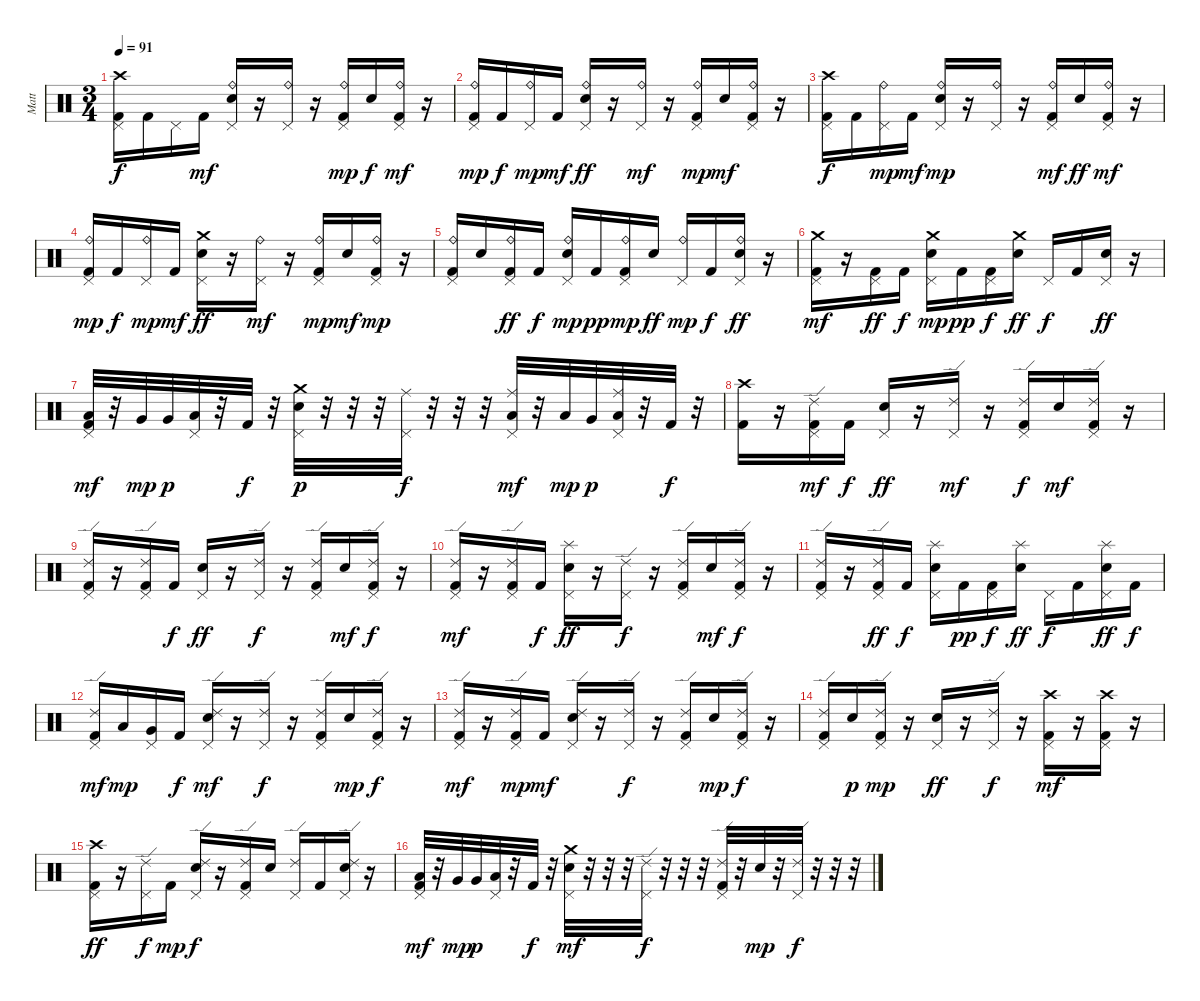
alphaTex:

\track ("Matt" "Matt") {instrument percussion}
\staff {score}
\articulation defaults
\ts (3 4)
\tempo 91
\clef neutral
\ks c
("Crash high (hit)" "Pedal Hi-Hat (hit)" "Kick (hit) 2").16{dy f} "Kick (hit) 2".16 "Pedal Hi-Hat (hit)".16 "Kick (hit) 2".16{dy mf} ("Ride (bell)" "Pedal Hi-Hat (hit)" "Electric Snare (hit)").16 r.16 ("Ride (bell)" "Pedal Hi-Hat (hit)").16 r.16 ("Ride (bell)" "Pedal Hi-Hat (hit)" "Kick (hit) 2").16{dy mp} "Electric Snare (hit)".16{dy f} ("Ride (bell)" "Pedal Hi-Hat (hit)" "Kick (hit) 2").16{dy mf} r.16 |
("Ride (bell)" "Pedal Hi-Hat (hit)" "Kick (hit) 2").16{dy mp} "Kick (hit) 2".16{dy f} ("Ride (bell)" "Pedal Hi-Hat (hit)").16{dy mp} "Kick (hit) 2".16{dy mf} ("Ride (bell)" "Pedal Hi-Hat (hit)" "Electric Snare (hit)").16{dy ff} r.16 ("Ride (bell)" "Pedal Hi-Hat (hit)").16{dy mf} r.16 ("Ride (bell)" "Pedal Hi-Hat (hit)" "Kick (hit) 2").16{dy mp} "Electric Snare (hit)".16{dy mf} ("Ride (bell)" "Pedal Hi-Hat (hit)" "Kick (hit) 2").16 r.16 |
("Crash high (hit)" "Pedal Hi-Hat (hit)" "Kick (hit) 2").16{dy f} "Kick (hit) 2".16 ("Ride (bell)" "Pedal Hi-Hat (hit)").16{dy mp} "Kick (hit) 2".16{dy mf} ("Ride (bell)" "Pedal Hi-Hat (hit)" "Electric Snare (hit)").16{dy mp} r.16 ("Ride (bell)" "Pedal Hi-Hat (hit)").16 r.16 ("Ride (bell)" "Pedal Hi-Hat (hit)" "Kick (hit) 2").16{dy mf} "Electric Snare (hit)".16{dy ff} ("Ride (bell)" "Pedal Hi-Hat (hit)" "Kick (hit) 2").16{dy mf} r.16 |
("Ride (bell)" "Pedal Hi-Hat (hit)" "Kick (hit) 2").16{dy mp} "Kick (hit) 2".16{dy f} ("Ride (bell)" "Pedal Hi-Hat (hit)").16{dy mp} "Kick (hit) 2".16{dy mf} ("Crash medium (hit)" "Pedal Hi-Hat (hit)" "Electric Snare (hit)").16{dy ff} r.16 ("Ride (bell)" "Pedal Hi-Hat (hit)").16{dy mf} r.16 ("Ride (bell)" "Pedal Hi-Hat (hit)" "Kick (hit) 2").16{dy mp} "Electric Snare (hit)".16{dy mf} ("Ride (bell)" "Pedal Hi-Hat (hit)" "Kick (hit) 2").16{dy mp} r.16 |
("Ride (bell)" "Pedal Hi-Hat (hit)" "Kick (hit) 2").16 "Electric Snare (hit)".16 ("Ride (bell)" "Pedal Hi-Hat (hit)" "Kick (hit) 2").16{dy ff} "Kick (hit) 2".16{dy f} ("Ride (bell)" "Pedal Hi-Hat (hit)" "Electric Snare (hit)").16{dy mp} "Kick (hit) 2".16{dy pp} ("Ride (bell)" "Pedal Hi-Hat (hit)" "Kick (hit) 2").16{dy mp} "Electric Snare (hit)".16{dy ff} ("Ride (bell)" "Pedal Hi-Hat (hit)").16{dy mp} "Kick (hit) 2".16{dy f} ("Ride (bell)" "Pedal Hi-Hat (hit)" "Electric Snare (hit)").16{dy ff} r.16 |
("Crash medium (hit)" "Pedal Hi-Hat (hit)" "Kick (hit) 2").16{dy mf} r.16 ("Pedal Hi-Hat (hit)" "Kick (hit) 2").16{dy ff} "Kick (hit) 2".16{dy f} ("Crash medium (hit)" "Pedal Hi-Hat (hit)" "Electric Snare (hit)").16{dy mp} "Kick (hit) 2".16{dy pp} ("Pedal Hi-Hat (hit)" "Kick (hit) 2").16{dy f} ("Crash medium (hit)" "Electric Snare (hit)").16{dy ff} "Pedal Hi-Hat (hit)".16{dy f} "Kick (hit) 2".16 ("Pedal Hi-Hat (hit)" "Electric Snare (hit)").16{dy ff} r.16 |
("Pedal Hi-Hat (hit)" "Low Tom (hit)" "Kick (hit) 2").32{dy mf} r.32 "Very Low Tom (hit)".32{dy mp} "Very Low Tom (hit)".32{dy p} ("Pedal Hi-Hat (hit)" "Low Floor Tom (hit)").32 r.32 "Kick (hit) 2".32{dy f} r.32 ("Crash medium (hit)" "Pedal Hi-Hat (hit)" "Electric Snare (hit)").32{dy p} r.32 r.32 r.32 ("Pedal Hi-Hat (hit)" "Ride (middle)").32{dy f} r.32 r.32 r.32 ("Pedal Hi-Hat (hit)" "Ride (middle)" "Low Tom (hit)").32{dy mf} r.32 "Low Tom (hit)".32{dy mp} "Very Low Tom (hit)".32{dy p} ("Pedal Hi-Hat (hit)" "Ride (middle)" "Low Floor Tom (hit)").32 r.32 "Kick (hit) 2".32{dy f} r.32 |
("Crash high (hit)" "Kick (hit) 2").16 r.16 ("Pedal Hi-Hat (hit)" "Ride (edge) 2" "Kick (hit) 2").16{dy mf} "Kick (hit) 2".16{dy f} ("Pedal Hi-Hat (hit)" "Electric Snare (hit)").16{dy ff} r.16 ("Pedal Hi-Hat (hit)" "Ride (edge) 2").16{dy mf} r.16 ("Pedal Hi-Hat (hit)" "Ride (edge) 2" "Kick (hit) 2").16{dy f} "Electric Snare (hit)".16{dy mf} ("Pedal Hi-Hat (hit)" "Ride (edge) 2" "Kick (hit) 2").16 r.16 |
("Pedal Hi-Hat (hit)" "Ride (edge) 2" "Kick (hit) 2").16 r.16 ("Pedal Hi-Hat (hit)" "Ride (edge) 2" "Kick (hit) 2").16 "Kick (hit) 2".16{dy f} ("Pedal Hi-Hat (hit)" "Electric Snare (hit)").16{dy ff} r.16 ("Pedal Hi-Hat (hit)" "Ride (edge) 2").16{dy f} r.16 ("Pedal Hi-Hat (hit)" "Ride (edge) 2" "Kick (hit) 2").16 "Electric Snare (hit)".16{dy mf} ("Pedal Hi-Hat (hit)" "Ride (edge) 2" "Kick (hit) 2").16{dy f} r.16 |
("Pedal Hi-Hat (hit)" "Ride (edge) 2" "Kick (hit) 2").16{dy mf} r.16 ("Pedal Hi-Hat (hit)" "Ride (edge) 2" "Kick (hit) 2").16 "Kick (hit) 2".16{dy f} ("Splash (hit)" "Pedal Hi-Hat (hit)" "Electric Snare (hit)").16{dy ff} r.16 ("Pedal Hi-Hat (hit)" "Ride (edge) 2").16{dy f} r.16 ("Pedal Hi-Hat (hit)" "Ride (edge) 2" "Kick (hit) 2").16 "Electric Snare (hit)".16{dy mf} ("Pedal Hi-Hat (hit)" "Ride (edge) 2" "Kick (hit) 2").16{dy f} r.16 |
("Pedal Hi-Hat (hit)" "Ride (edge) 2" "Kick (hit) 2").16 r.16 ("Pedal Hi-Hat (hit)" "Ride (edge) 2" "Kick (hit) 2").16{dy ff} "Kick (hit) 2".16{dy f} ("Splash (hit)" "Pedal Hi-Hat (hit)" "Electric Snare (hit)").16 "Kick (hit) 2".16{dy pp} ("Pedal Hi-Hat (hit)" "Kick (hit) 2").16{dy f} ("Splash (hit)" "Electric Snare (hit)").16{dy ff} "Pedal Hi-Hat (hit)".16{dy f} "Kick (hit) 2".16 ("Splash (hit)" "Pedal Hi-Hat (hit)" "Electric Snare (hit)").16{dy ff} "Kick (hit) 2".16{dy f} |
("Pedal Hi-Hat (hit)" "Ride (edge) 2" "Kick (hit) 2").16{dy mf} "Low Tom (hit)".16{dy mp} ("Pedal Hi-Hat (hit)" "Very Low Tom (hit)").16 "Kick (hit) 2".16{dy f} ("Pedal Hi-Hat (hit)" "Ride (edge) 2" "Electric Snare (hit)").16{dy mf} r.16 ("Pedal Hi-Hat (hit)" "Ride (edge) 2").16{dy f} r.16 ("Pedal Hi-Hat (hit)" "Ride (edge) 2" "Kick (hit) 2").16 "Electric Snare (hit)".16{dy mp} ("Pedal Hi-Hat (hit)" "Ride (edge) 2" "Kick (hit) 2").16{dy f} r.16 |
("Pedal Hi-Hat (hit)" "Ride (edge) 2" "Kick (hit) 2").16{dy mf} r.16 ("Pedal Hi-Hat (hit)" "Ride (edge) 2" "Kick (hit) 2").16{dy mp} "Kick (hit) 2".16{dy mf} ("Pedal Hi-Hat (hit)" "Ride (edge) 2" "Electric Snare (hit)").16 r.16 ("Pedal Hi-Hat (hit)" "Ride (edge) 2").16{dy f} r.16 ("Pedal Hi-Hat (hit)" "Ride (edge) 2" "Kick (hit) 2").16 "Electric Snare (hit)".16{dy mp} ("Pedal Hi-Hat (hit)" "Ride (edge) 2" "Kick (hit) 2").16{dy f} r.16 |
("Pedal Hi-Hat (hit)" "Ride (edge) 2" "Kick (hit) 2").16 "Electric Snare (hit)".16{dy p} ("Pedal Hi-Hat (hit)" "Ride (edge) 2" "Kick (hit) 2").16{dy mp} r.16 ("Pedal Hi-Hat (hit)" "Electric Snare (hit)").16{dy ff} r.16 ("Pedal Hi-Hat (hit)" "Ride (edge) 2").16{dy f} r.16 ("Crash high (hit)" "Pedal Hi-Hat (hit)" "Kick (hit) 2").16{dy mf} r.16 ("Crash high (hit)" "Pedal Hi-Hat (hit)" "Kick (hit) 2").16 r.16 |
("Crash high (hit)" "Pedal Hi-Hat (hit)" "Kick (hit) 2").16{dy ff} r.16 ("Pedal Hi-Hat (hit)" "Ride (edge) 2").16{dy f} "Kick (hit) 2".16{dy mp} ("Pedal Hi-Hat (hit)" "Ride (edge) 2" "Electric Snare (hit)").16{dy f} r.16 ("Pedal Hi-Hat (hit)" "Ride (edge) 2" "Kick (hit) 2").16 "Electric Snare (hit)".16 ("Pedal Hi-Hat (hit)" "Ride (edge) 2").16 "Kick (hit) 2".16 ("Pedal Hi-Hat (hit)" "Ride (edge) 2" "Electric Snare (hit)").16 r.16 |
("Pedal Hi-Hat (hit)" "Low Tom (hit)" "Kick (hit) 2").32{dy mf} r.32 "Very Low Tom (hit)".32{dy mp} "Very Low Tom (hit)".32{dy p} ("Pedal Hi-Hat (hit)" "Low Floor Tom (hit)").32 r.32 "Kick (hit) 2".32{dy f} r.32 ("Crash medium (hit)" "Pedal Hi-Hat (hit)" "Electric Snare (hit)").32{dy mf} r.32 r.32 r.32 ("Pedal Hi-Hat (hit)" "Ride (edge) 2").32{dy f} r.32 r.32 r.32 ("Pedal Hi-Hat (hit)" "Ride (edge) 2" "Kick (hit) 2").32 r.32 "Electric Snare (hit)".32{dy mp} r.32 ("Pedal Hi-Hat (hit)" "Ride (edge) 2").32{dy f} r.32 r.32 r.32
